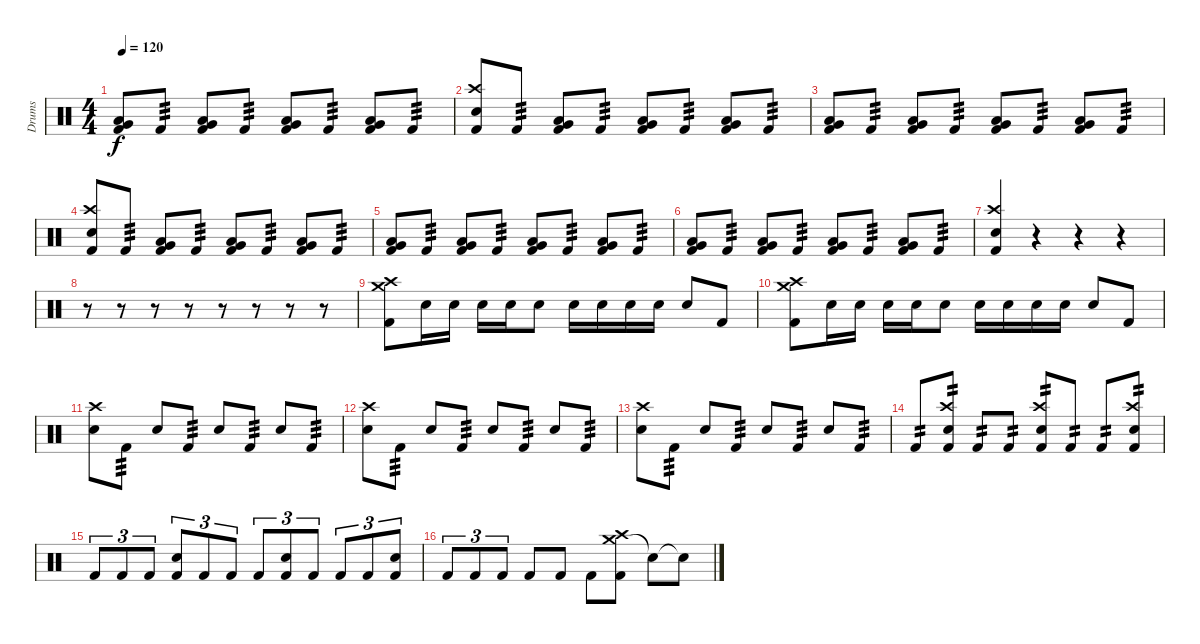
\track ("Drums" "Drums") {instrument percussion}
\staff {score}
\articulation defaults
\ts (4 4)
\tempo 120
\clef neutral
\ks c
("Very Low Tom (hit)" "Low Floor Tom (hit)" "Kick (hit) 2").8{dy f} "Kick (hit) 2".8{tp 3} ("Very Low Tom (hit)" "Low Floor Tom (hit)" "Kick (hit) 2").8 "Kick (hit) 2".8{tp 3} ("Very Low Tom (hit)" "Low Floor Tom (hit)" "Kick (hit) 2").8 "Kick (hit) 2".8{tp 3} ("Very Low Tom (hit)" "Low Floor Tom (hit)" "Kick (hit) 2").8 "Kick (hit) 2".8{tp 3} |
("Crash high (hit)" "Snare (hit) 2" "Kick (hit) 2").8 "Kick (hit) 2".8{tp 3} ("Very Low Tom (hit)" "Low Floor Tom (hit)" "Kick (hit) 2").8 "Kick (hit) 2".8{tp 3} ("Very Low Tom (hit)" "Low Floor Tom (hit)" "Kick (hit) 2").8 "Kick (hit) 2".8{tp 3} ("Very Low Tom (hit)" "Low Floor Tom (hit)" "Kick (hit) 2").8 "Kick (hit) 2".8{tp 3} |
("Very Low Tom (hit)" "Low Floor Tom (hit)" "Kick (hit) 2").8 "Kick (hit) 2".8{tp 3} ("Very Low Tom (hit)" "Low Floor Tom (hit)" "Kick (hit) 2").8 "Kick (hit) 2".8{tp 3} ("Very Low Tom (hit)" "Low Floor Tom (hit)" "Kick (hit) 2").8 "Kick (hit) 2".8{tp 3} ("Very Low Tom (hit)" "Low Floor Tom (hit)" "Kick (hit) 2").8 "Kick (hit) 2".8{tp 3} |
("Crash high (hit)" "Snare (hit) 2" "Kick (hit) 2").8 "Kick (hit) 2".8{tp 3} ("Very Low Tom (hit)" "Low Floor Tom (hit)" "Kick (hit) 2").8 "Kick (hit) 2".8{tp 3} ("Very Low Tom (hit)" "Low Floor Tom (hit)" "Kick (hit) 2").8 "Kick (hit) 2".8{tp 3} ("Very Low Tom (hit)" "Low Floor Tom (hit)" "Kick (hit) 2").8 "Kick (hit) 2".8{tp 3} |
("Very Low Tom (hit)" "Low Floor Tom (hit)" "Kick (hit) 2").8 "Kick (hit) 2".8{tp 3} ("Very Low Tom (hit)" "Low Floor Tom (hit)" "Kick (hit) 2").8 "Kick (hit) 2".8{tp 3} ("Very Low Tom (hit)" "Low Floor Tom (hit)" "Kick (hit) 2").8 "Kick (hit) 2".8{tp 3} ("Very Low Tom (hit)" "Low Floor Tom (hit)" "Kick (hit) 2").8 "Kick (hit) 2".8{tp 3} |
("Very Low Tom (hit)" "Low Floor Tom (hit)" "Kick (hit) 2").8 "Kick (hit) 2".8{tp 3} ("Very Low Tom (hit)" "Low Floor Tom (hit)" "Kick (hit) 2").8 "Kick (hit) 2".8{tp 3} ("Very Low Tom (hit)" "Low Floor Tom (hit)" "Kick (hit) 2").8 "Kick (hit) 2".8{tp 3} ("Very Low Tom (hit)" "Low Floor Tom (hit)" "Kick (hit) 2").8 "Kick (hit) 2".8{tp 3} |
("Crash high (hit)" "Snare (hit) 2" "Kick (hit) 2").4 r.4 r.4 r.4 |
r.8 r.8 r.8 r.8 r.8 r.8 r.8 r.8 |
("Crash medium (hit)" "Crash high (hit)" "Kick (hit) 2").8 "Snare (hit) 2".16 "Snare (hit) 2".16 "Snare (hit) 2".16 "Snare (hit) 2".16 "Snare (hit) 2".8 "Snare (hit) 2".16 "Snare (hit) 2".16 "Snare (hit) 2".16 "Snare (hit) 2".16 "Snare (hit) 2".8 "Kick (hit) 2".8 |
("Crash medium (hit)" "Crash high (hit)" "Kick (hit) 2").8 "Snare (hit) 2".16 "Snare (hit) 2".16 "Snare (hit) 2".16 "Snare (hit) 2".16 "Snare (hit) 2".8 "Snare (hit) 2".16 "Snare (hit) 2".16 "Snare (hit) 2".16 "Snare (hit) 2".16 "Snare (hit) 2".8 "Kick (hit) 2".8 |
("Crash high (hit)" "Snare (hit) 2").8 "Kick (hit) 2".8{tp 3} "Snare (hit) 2".8 "Kick (hit) 2".8{tp 3} "Snare (hit) 2".8 "Kick (hit) 2".8{tp 3} "Snare (hit) 2".8 "Kick (hit) 2".8{tp 3} |
("Crash high (hit)" "Snare (hit) 2").8 "Kick (hit) 2".8{tp 3} "Snare (hit) 2".8 "Kick (hit) 2".8{tp 3} "Snare (hit) 2".8 "Kick (hit) 2".8{tp 3} "Snare (hit) 2".8 "Kick (hit) 2".8{tp 3} |
("Crash high (hit)" "Snare (hit) 2").8 "Kick (hit) 2".8{tp 3} "Snare (hit) 2".8 "Kick (hit) 2".8{tp 3} "Snare (hit) 2".8 "Kick (hit) 2".8{tp 3} "Snare (hit) 2".8 "Kick (hit) 2".8{tp 3} |
"Kick (hit) 2".8{tp 2} ("Crash high (hit)" "Snare (hit) 2" "Kick (hit) 2").8{tp 2} "Kick (hit) 2".8{tp 2} "Kick (hit) 2".8{tp 2} ("Crash high (hit)" "Snare (hit) 2" "Kick (hit) 2").8{tp 2} "Kick (hit) 2".8{tp 2} "Kick (hit) 2".8{tp 2} ("Crash high (hit)" "Snare (hit) 2" "Kick (hit) 2").8{tp 2} |
"Kick (hit) 2".8{tu (3 2)} "Kick (hit) 2".8{tu (3 2)} "Kick (hit) 2".8{tu (3 2)} ("Snare (hit) 2" "Kick (hit) 2").8{tu (3 2)} "Kick (hit) 2".8{tu (3 2)} "Kick (hit) 2".8{tu (3 2)} "Kick (hit) 2".8{tu (3 2)} ("Snare (hit) 2" "Kick (hit) 2").8{tu (3 2)} "Kick (hit) 2".8{tu (3 2)} "Kick (hit) 2".8{tu (3 2)} "Kick (hit) 2".8{tu (3 2)} ("Snare (hit) 2" "Kick (hit) 2").8{tu (3 2)} |
"Kick (hit) 2".8{tu (3 2)} "Kick (hit) 2".8{tu (3 2)} "Kick (hit) 2".8{tu (3 2)} "Kick (hit) 2".8 "Kick (hit) 2".8 "Kick (hit) 2".8 ("Crash medium (hit)" "Crash high (hit)" "Kick (hit) 2").8 "Snare (hit)"{t}.8 "Snare (hit)"{t}.8
